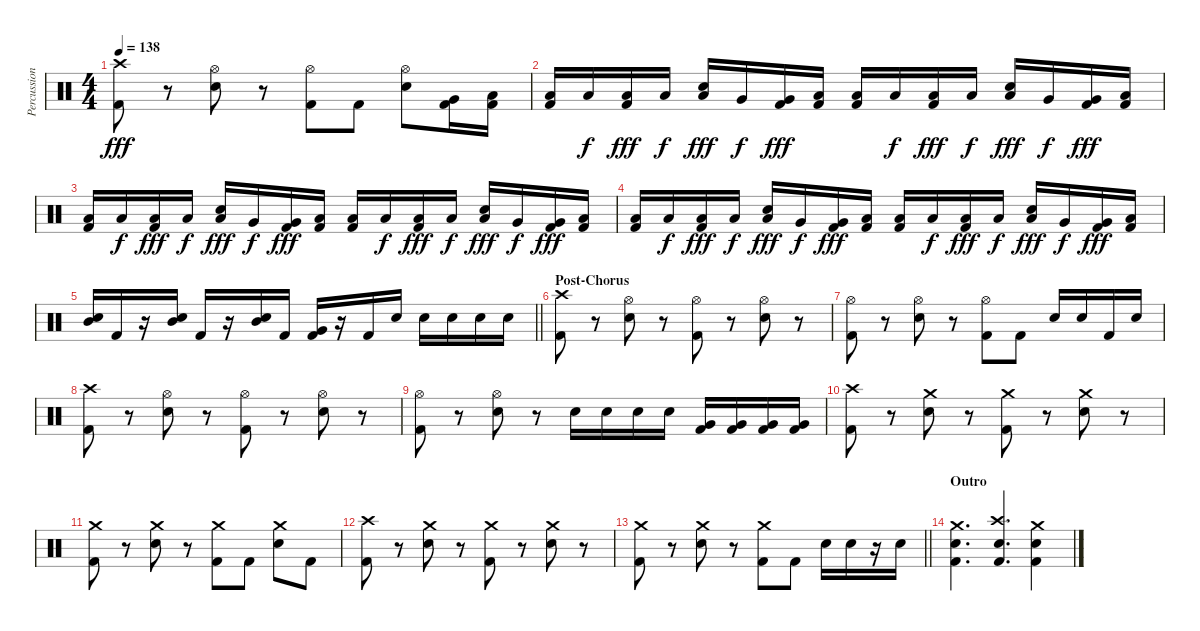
\track ("Percussion" "Percussion") {instrument percussion}
\staff {score}
\articulation defaults
\ts (4 4)
\tempo 138
\clef neutral
\ks c
("Kick (hit) 2" "Crash high (hit)").8{dy fff} r.8 ("Snare (hit) 2" "Hi-Hat (open)").8 r.8 ("Kick (hit) 2" "Hi-Hat (open)").8 "Kick (hit) 2".8 ("Snare (hit) 2" "Hi-Hat (open)").8 ("Kick (hit) 2" "Very Low Tom (hit)").16 ("Kick (hit) 2" "Low Tom (hit)").16 |
("Kick (hit) 2" "Low Tom (hit)").16 "Low Floor Tom (hit)".16{dy f} ("Kick (hit) 2" "Low Floor Tom (hit)").16{dy fff} "Low Floor Tom (hit)".16{dy f} ("Snare (hit) 2" "Low Floor Tom (hit)").16{dy fff} "Very Low Tom (hit)".16{dy f} ("Kick (hit) 2" "Very Low Tom (hit)").16{dy fff} ("Kick (hit) 2" "Low Tom (hit)").16 ("Kick (hit) 2" "Low Tom (hit)").16 "Low Floor Tom (hit)".16{dy f} ("Kick (hit) 2" "Low Floor Tom (hit)").16{dy fff} "Low Floor Tom (hit)".16{dy f} ("Snare (hit) 2" "Low Floor Tom (hit)").16{dy fff} "Very Low Tom (hit)".16{dy f} ("Kick (hit) 2" "Very Low Tom (hit)").16{dy fff} ("Kick (hit) 2" "Low Tom (hit)").16 |
("Kick (hit) 2" "Low Tom (hit)").16 "Low Floor Tom (hit)".16{dy f} ("Kick (hit) 2" "Low Floor Tom (hit)").16{dy fff} "Low Floor Tom (hit)".16{dy f} ("Snare (hit) 2" "Low Floor Tom (hit)").16{dy fff} "Very Low Tom (hit)".16{dy f} ("Kick (hit) 2" "Very Low Tom (hit)").16{dy fff} ("Kick (hit) 2" "Low Tom (hit)").16 ("Kick (hit) 2" "Low Tom (hit)").16 "Low Floor Tom (hit)".16{dy f} ("Kick (hit) 2" "Low Floor Tom (hit)").16{dy fff} "Low Floor Tom (hit)".16{dy f} ("Snare (hit) 2" "Low Floor Tom (hit)").16{dy fff} "Very Low Tom (hit)".16{dy f} ("Kick (hit) 2" "Very Low Tom (hit)").16{dy fff} ("Kick (hit) 2" "Low Tom (hit)").16 |
("Kick (hit) 2" "Low Tom (hit)").16 "Low Floor Tom (hit)".16{dy f} ("Kick (hit) 2" "Low Floor Tom (hit)").16{dy fff} "Low Floor Tom (hit)".16{dy f} ("Snare (hit) 2" "Low Floor Tom (hit)").16{dy fff} "Very Low Tom (hit)".16{dy f} ("Kick (hit) 2" "Very Low Tom (hit)").16{dy fff} ("Kick (hit) 2" "Low Tom (hit)").16 ("Kick (hit) 2" "Low Tom (hit)").16 "Low Floor Tom (hit)".16{dy f} ("Kick (hit) 2" "Low Floor Tom (hit)").16{dy fff} "Low Floor Tom (hit)".16{dy f} ("Snare (hit) 2" "Low Floor Tom (hit)").16{dy fff} "Very Low Tom (hit)".16{dy f} ("Kick (hit) 2" "Very Low Tom (hit)").16{dy fff} ("Kick (hit) 2" "Low Tom (hit)").16 |
\barLineRight lightlight
("Snare (hit) 2" "Mid Tom (hit)").16 "Kick (hit) 2".16 r.16 ("Snare (hit) 2" "Mid Tom (hit)").16 "Kick (hit) 2".16 r.16 ("Snare (hit) 2" "Mid Tom (hit)").16 "Kick (hit) 2".16 ("Kick (hit) 2" "Very Low Tom (hit)").16 r.16 "Kick (hit) 2".16 "Snare (hit) 2".16 "Snare (hit) 2".16 "Snare (hit) 2".16 "Snare (hit) 2".16 "Snare (hit) 2".16 |
\section ("" "Post-Chorus")
("Kick (hit) 2" "Crash high (hit)").8 r.8 ("Snare (hit) 2" "Hi-Hat (open)").8 r.8 ("Kick (hit) 2" "Hi-Hat (open)").8 r.8 ("Snare (hit) 2" "Hi-Hat (open)").8 r.8 |
("Kick (hit) 2" "Hi-Hat (open)").8 r.8 ("Snare (hit) 2" "Hi-Hat (open)").8 r.8 ("Kick (hit) 2" "Hi-Hat (open)").8 "Kick (hit) 2".8 "Snare (hit) 2".16 "Snare (hit) 2".16 "Kick (hit) 2".16 "Snare (hit) 2".16 |
("Kick (hit) 2" "Crash high (hit)").8 r.8 ("Snare (hit) 2" "Hi-Hat (open)").8 r.8 ("Kick (hit) 2" "Hi-Hat (open)").8 r.8 ("Snare (hit) 2" "Hi-Hat (open)").8 r.8 |
("Kick (hit) 2" "Hi-Hat (open)").8 r.8 ("Snare (hit) 2" "Hi-Hat (open)").8 r.8 "Snare (hit) 2".16 "Snare (hit) 2".16 "Snare (hit) 2".16 "Snare (hit) 2".16 ("Kick (hit) 2" "Very Low Tom (hit)").16 ("Kick (hit) 2" "Very Low Tom (hit)").16 ("Kick (hit) 2" "Very Low Tom (hit)").16 ("Kick (hit) 2" "Very Low Tom (hit)").16 |
("Kick (hit) 2" "Crash high (hit)").8 r.8 ("Snare (hit) 2" "Crash medium (hit)").8 r.8 ("Kick (hit) 2" "Crash medium (hit)").8 r.8 ("Snare (hit) 2" "Crash medium (hit)").8 r.8 |
("Kick (hit) 2" "Crash medium (hit)").8 r.8 ("Snare (hit) 2" "Crash medium (hit)").8 r.8 ("Kick (hit) 2" "Crash medium (hit)").8 "Kick (hit) 2".8 ("Snare (hit) 2" "Crash medium (hit)").8 "Kick (hit) 2".8 |
("Kick (hit) 2" "Crash high (hit)").8 r.8 ("Snare (hit) 2" "Crash medium (hit)").8 r.8 ("Kick (hit) 2" "Crash medium (hit)").8 r.8 ("Snare (hit) 2" "Crash medium (hit)").8 r.8 |
\barLineRight lightlight
("Kick (hit) 2" "Crash medium (hit)").8 r.8 ("Snare (hit) 2" "Crash medium (hit)").8 r.8 ("Kick (hit) 2" "Crash medium (hit)").8 "Kick (hit) 2".8 "Snare (hit) 2".16 "Snare (hit) 2".16 r.16 "Snare (hit) 2".16 |
\section ("" "Outro")
("Kick (hit) 2" "Snare (hit) 2" "Crash medium (hit)").4{d} ("Kick (hit) 2" "Snare (hit) 2" "Crash high (hit)").4{d} ("Kick (hit) 2" "Snare (hit) 2" "Crash medium (hit)").4
